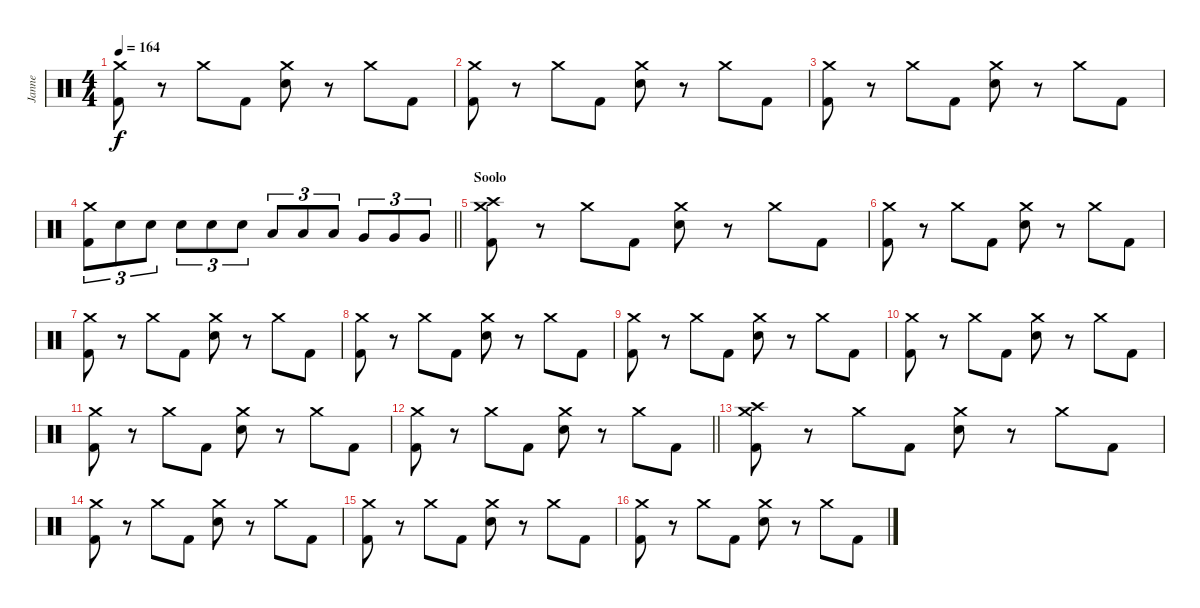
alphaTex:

\track ("Janne" "Janne") {instrument percussion}
\staff {score}
\articulation defaults
\ts (4 4)
\tempo 164
\clef neutral
\ks c
("Crash medium (hit)" "Kick (hit) 2").8{dy f} r.8 "Crash medium (hit)".8 "Kick (hit) 2".8 ("Crash medium (hit)" "Electric Snare (hit)").8 r.8 "Crash medium (hit)".8 "Kick (hit) 2".8 |
("Crash medium (hit)" "Kick (hit) 2").8 r.8 "Crash medium (hit)".8 "Kick (hit) 2".8 ("Crash medium (hit)" "Electric Snare (hit)").8 r.8 "Crash medium (hit)".8 "Kick (hit) 2".8 |
("Crash medium (hit)" "Kick (hit) 2").8 r.8 "Crash medium (hit)".8 "Kick (hit) 2".8 ("Crash medium (hit)" "Electric Snare (hit)").8 r.8 "Crash medium (hit)".8 "Kick (hit) 2".8 |
\barLineRight lightlight
("Crash medium (hit)" "Kick (hit) 2").8{tu (3 2)} "Electric Snare (hit)".8{tu (3 2)} "Electric Snare (hit)".8{tu (3 2)} "Electric Snare (hit)".8{tu (3 2)} "Electric Snare (hit)".8{tu (3 2)} "Electric Snare (hit)".8{tu (3 2)} "Low Tom (hit)".8{tu (3 2)} "Low Tom (hit)".8{tu (3 2)} "Low Tom (hit)".8{tu (3 2)} "Very Low Tom (hit)".8{tu (3 2)} "Very Low Tom (hit)".8{tu (3 2)} "Very Low Tom (hit)".8{tu (3 2)} |
\section ("" "Soolo")
("Crash medium (hit)" "Crash high (hit)" "Kick (hit) 2").8 r.8 "Crash medium (hit)".8 "Kick (hit) 2".8 ("Crash medium (hit)" "Electric Snare (hit)").8 r.8 "Crash medium (hit)".8 "Kick (hit) 2".8 |
("Crash medium (hit)" "Kick (hit) 2").8 r.8 "Crash medium (hit)".8 "Kick (hit) 2".8 ("Crash medium (hit)" "Electric Snare (hit)").8 r.8 "Crash medium (hit)".8 "Kick (hit) 2".8 |
("Crash medium (hit)" "Kick (hit) 2").8 r.8 "Crash medium (hit)".8 "Kick (hit) 2".8 ("Crash medium (hit)" "Electric Snare (hit)").8 r.8 "Crash medium (hit)".8 "Kick (hit) 2".8 |
("Crash medium (hit)" "Kick (hit) 2").8 r.8 "Crash medium (hit)".8 "Kick (hit) 2".8 ("Crash medium (hit)" "Electric Snare (hit)").8 r.8 "Crash medium (hit)".8 "Kick (hit) 2".8 |
("Crash medium (hit)" "Kick (hit) 2").8 r.8 "Crash medium (hit)".8 "Kick (hit) 2".8 ("Crash medium (hit)" "Electric Snare (hit)").8 r.8 "Crash medium (hit)".8 "Kick (hit) 2".8 |
("Crash medium (hit)" "Kick (hit) 2").8 r.8 "Crash medium (hit)".8 "Kick (hit) 2".8 ("Crash medium (hit)" "Electric Snare (hit)").8 r.8 "Crash medium (hit)".8 "Kick (hit) 2".8 |
("Crash medium (hit)" "Kick (hit) 2").8 r.8 "Crash medium (hit)".8 "Kick (hit) 2".8 ("Crash medium (hit)" "Electric Snare (hit)").8 r.8 "Crash medium (hit)".8 "Kick (hit) 2".8 |
\barLineRight lightlight
("Crash medium (hit)" "Kick (hit) 2").8 r.8 "Crash medium (hit)".8 "Kick (hit) 2".8 ("Crash medium (hit)" "Electric Snare (hit)").8 r.8 "Crash medium (hit)".8 "Kick (hit) 2".8 |
("Crash medium (hit)" "Crash high (hit)" "Kick (hit) 2").8 r.8 "Crash medium (hit)".8 "Kick (hit) 2".8 ("Crash medium (hit)" "Electric Snare (hit)").8 r.8 "Crash medium (hit)".8 "Kick (hit) 2".8 |
("Crash medium (hit)" "Kick (hit) 2").8 r.8 "Crash medium (hit)".8 "Kick (hit) 2".8 ("Crash medium (hit)" "Electric Snare (hit)").8 r.8 "Crash medium (hit)".8 "Kick (hit) 2".8 |
("Crash medium (hit)" "Kick (hit) 2").8 r.8 "Crash medium (hit)".8 "Kick (hit) 2".8 ("Crash medium (hit)" "Electric Snare (hit)").8 r.8 "Crash medium (hit)".8 "Kick (hit) 2".8 |
("Crash medium (hit)" "Kick (hit) 2").8 r.8 "Crash medium (hit)".8 "Kick (hit) 2".8 ("Crash medium (hit)" "Electric Snare (hit)").8 r.8 "Crash medium (hit)".8 "Kick (hit) 2".8
